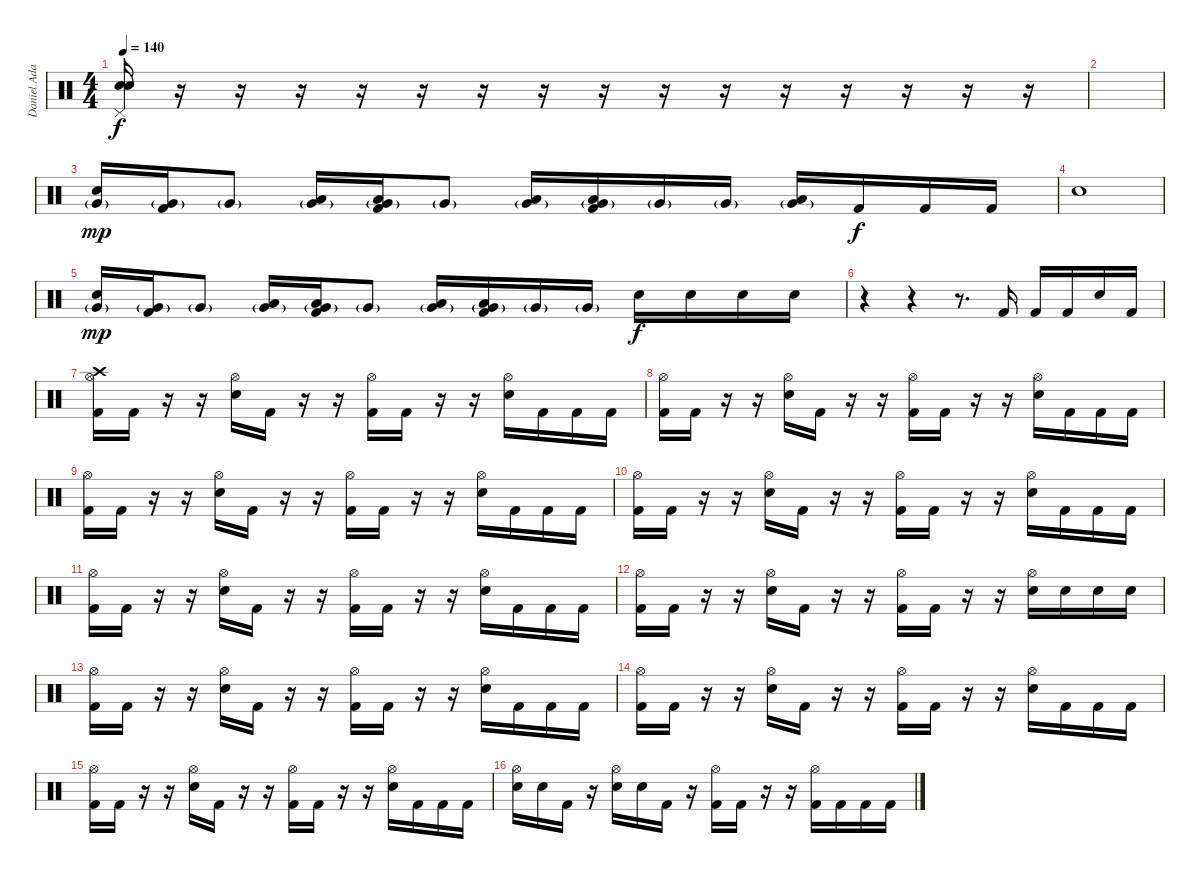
\track ("Daniel Adair" "Daniel Ada") {instrument percussion}
\staff {score}
\articulation defaults
\ts (4 4)
\tempo 140
\clef neutral
\ks c
("Pedal Hi-Hat (hit)" "Snare (hit) 2" "Snare (hit) 2").16{dy f} r.16 r.16 r.16 r.16 r.16 r.16 r.16 r.16 r.16 r.16 r.16 r.16 r.16 r.16 r.16 |
|
("Very Low Tom (hit)"{g} "Snare (hit) 2").16{dy mp} ("Very Low Tom (hit)"{g} "Kick (hit) 2").16 "Very Low Tom (hit)"{g}.8 ("Very Low Tom (hit)"{g} "Low Floor Tom (hit)").16 ("Very Low Tom (hit)"{g} "Low Floor Tom (hit)" "Kick (hit) 2").16 "Very Low Tom (hit)"{g}.8 ("Very Low Tom (hit)"{g} "Low Floor Tom (hit)").16 ("Very Low Tom (hit)"{g} "Low Floor Tom (hit)" "Kick (hit) 2").16 "Very Low Tom (hit)"{g}.16 "Very Low Tom (hit)"{g}.16 ("Very Low Tom (hit)"{g} "Low Floor Tom (hit)").16 "Kick (hit) 2".16{dy f} "Kick (hit) 2".16 "Kick (hit) 2".16 |
"Snare (hit) 2".1 |
("Very Low Tom (hit)"{g} "Snare (hit) 2").16{dy mp} ("Very Low Tom (hit)"{g} "Kick (hit) 2").16 "Very Low Tom (hit)"{g}.8 ("Very Low Tom (hit)"{g} "Low Floor Tom (hit)").16 ("Very Low Tom (hit)"{g} "Low Floor Tom (hit)" "Kick (hit) 2").16 "Very Low Tom (hit)"{g}.8 ("Very Low Tom (hit)"{g} "Low Floor Tom (hit)").16 ("Very Low Tom (hit)"{g} "Low Floor Tom (hit)" "Kick (hit) 2").16 "Very Low Tom (hit)"{g}.16 "Very Low Tom (hit)"{g}.16 "Snare (hit) 2".16{dy f} "Snare (hit) 2".16 "Snare (hit) 2".16 "Snare (hit) 2".16 |
r.4 r.4 r.8{d} "Kick (hit) 2".16 "Kick (hit) 2".16 "Kick (hit) 2".16 "Snare (hit) 2".16 "Kick (hit) 2".16 |
("Crash high (hit)" "Hi-Hat (open)" "Kick (hit) 2").16 "Kick (hit) 2".16 r.16 r.16 ("Hi-Hat (open)" "Snare (hit) 2").16 "Kick (hit) 2".16 r.16 r.16 ("Hi-Hat (open)" "Kick (hit) 2").16 "Kick (hit) 2".16 r.16 r.16 ("Hi-Hat (open)" "Snare (hit) 2").16 "Kick (hit) 2".16 "Kick (hit) 2".16 "Kick (hit) 2".16 |
("Hi-Hat (open)" "Kick (hit) 2").16 "Kick (hit) 2".16 r.16 r.16 ("Hi-Hat (open)" "Snare (hit) 2").16 "Kick (hit) 2".16 r.16 r.16 ("Hi-Hat (open)" "Kick (hit) 2").16 "Kick (hit) 2".16 r.16 r.16 ("Hi-Hat (open)" "Snare (hit) 2").16 "Kick (hit) 2".16 "Kick (hit) 2".16 "Kick (hit) 2".16 |
("Hi-Hat (open)" "Kick (hit) 2").16 "Kick (hit) 2".16 r.16 r.16 ("Hi-Hat (open)" "Snare (hit) 2").16 "Kick (hit) 2".16 r.16 r.16 ("Hi-Hat (open)" "Kick (hit) 2").16 "Kick (hit) 2".16 r.16 r.16 ("Hi-Hat (open)" "Snare (hit) 2").16 "Kick (hit) 2".16 "Kick (hit) 2".16 "Kick (hit) 2".16 |
("Hi-Hat (open)" "Kick (hit) 2").16 "Kick (hit) 2".16 r.16 r.16 ("Hi-Hat (open)" "Snare (hit) 2").16 "Kick (hit) 2".16 r.16 r.16 ("Hi-Hat (open)" "Kick (hit) 2").16 "Kick (hit) 2".16 r.16 r.16 ("Hi-Hat (open)" "Snare (hit) 2").16 "Kick (hit) 2".16 "Kick (hit) 2".16 "Kick (hit) 2".16 |
("Hi-Hat (open)" "Kick (hit) 2").16 "Kick (hit) 2".16 r.16 r.16 ("Hi-Hat (open)" "Snare (hit) 2").16 "Kick (hit) 2".16 r.16 r.16 ("Hi-Hat (open)" "Kick (hit) 2").16 "Kick (hit) 2".16 r.16 r.16 ("Hi-Hat (open)" "Snare (hit) 2").16 "Kick (hit) 2".16 "Kick (hit) 2".16 "Kick (hit) 2".16 |
("Hi-Hat (open)" "Kick (hit) 2").16 "Kick (hit) 2".16 r.16 r.16 ("Hi-Hat (open)" "Snare (hit) 2").16 "Kick (hit) 2".16 r.16 r.16 ("Hi-Hat (open)" "Kick (hit) 2").16 "Kick (hit) 2".16 r.16 r.16 ("Hi-Hat (open)" "Snare (hit) 2").16 "Snare (hit) 2".16 "Snare (hit) 2".16 "Snare (hit) 2".16 |
("Hi-Hat (open)" "Kick (hit) 2").16 "Kick (hit) 2".16 r.16 r.16 ("Hi-Hat (open)" "Snare (hit) 2").16 "Kick (hit) 2".16 r.16 r.16 ("Hi-Hat (open)" "Kick (hit) 2").16 "Kick (hit) 2".16 r.16 r.16 ("Hi-Hat (open)" "Snare (hit) 2").16 "Kick (hit) 2".16 "Kick (hit) 2".16 "Kick (hit) 2".16 |
("Hi-Hat (open)" "Kick (hit) 2").16 "Kick (hit) 2".16 r.16 r.16 ("Hi-Hat (open)" "Snare (hit) 2").16 "Kick (hit) 2".16 r.16 r.16 ("Hi-Hat (open)" "Kick (hit) 2").16 "Kick (hit) 2".16 r.16 r.16 ("Hi-Hat (open)" "Snare (hit) 2").16 "Kick (hit) 2".16 "Kick (hit) 2".16 "Kick (hit) 2".16 |
("Hi-Hat (open)" "Kick (hit) 2").16 "Kick (hit) 2".16 r.16 r.16 ("Hi-Hat (open)" "Snare (hit) 2").16 "Kick (hit) 2".16 r.16 r.16 ("Hi-Hat (open)" "Kick (hit) 2").16 "Kick (hit) 2".16 r.16 r.16 ("Hi-Hat (open)" "Snare (hit) 2").16 "Kick (hit) 2".16 "Kick (hit) 2".16 "Kick (hit) 2".16 |
("Hi-Hat (open)" "Snare (hit) 2").16 "Snare (hit) 2".16 "Kick (hit) 2".16 r.16 ("Hi-Hat (open)" "Snare (hit) 2").16 "Snare (hit) 2".16 "Kick (hit) 2".16 r.16 ("Hi-Hat (open)" "Kick (hit) 2").16 "Kick (hit) 2".16 r.16 r.16 ("Hi-Hat (open)" "Kick (hit) 2").16 "Kick (hit) 2".16 "Kick (hit) 2".16 "Kick (hit) 2".16
